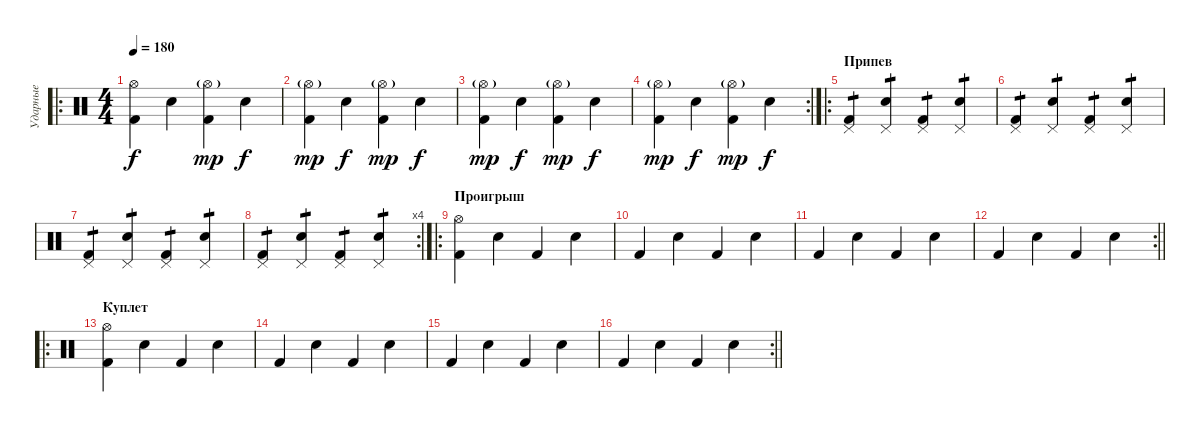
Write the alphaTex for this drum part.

\track ("Ударные" "Ударные") {instrument percussion}
\staff {score}
\articulation defaults
\ro
\ts (4 4)
\tempo 180
\clef neutral
\ks c
("Hi-Hat (open)" "Kick (hit) 2").4{dy f} "Snare (hit) 2".4 ("Hi-Hat (open)"{g} "Kick (hit) 2").4{dy mp} "Snare (hit) 2".4{dy f} |
("Hi-Hat (open)"{g} "Kick (hit) 2").4{dy mp} "Snare (hit) 2".4{dy f} ("Hi-Hat (open)"{g} "Kick (hit) 2").4{dy mp} "Snare (hit) 2".4{dy f} |
("Hi-Hat (open)"{g} "Kick (hit) 2").4{dy mp} "Snare (hit) 2".4{dy f} ("Hi-Hat (open)"{g} "Kick (hit) 2").4{dy mp} "Snare (hit) 2".4{dy f} |
\rc 2
("Hi-Hat (open)"{g} "Kick (hit) 2").4{dy mp} "Snare (hit) 2".4{dy f} ("Hi-Hat (open)"{g} "Kick (hit) 2").4{dy mp} "Snare (hit) 2".4{dy f} |
\ro
\section ("" "Припев")
("Pedal Hi-Hat (hit)" "Kick (hit) 2").4{tp 1} ("Snare (hit) 2" "Pedal Hi-Hat (hit)").4{tp 1} ("Pedal Hi-Hat (hit)" "Kick (hit) 2").4{tp 1} ("Snare (hit) 2" "Pedal Hi-Hat (hit)").4{tp 1} |
("Pedal Hi-Hat (hit)" "Kick (hit) 2").4{tp 1} ("Snare (hit) 2" "Pedal Hi-Hat (hit)").4{tp 1} ("Pedal Hi-Hat (hit)" "Kick (hit) 2").4{tp 1} ("Snare (hit) 2" "Pedal Hi-Hat (hit)").4{tp 1} |
("Pedal Hi-Hat (hit)" "Kick (hit) 2").4{tp 1} ("Snare (hit) 2" "Pedal Hi-Hat (hit)").4{tp 1} ("Pedal Hi-Hat (hit)" "Kick (hit) 2").4{tp 1} ("Snare (hit) 2" "Pedal Hi-Hat (hit)").4{tp 1} |
\rc 4
("Pedal Hi-Hat (hit)" "Kick (hit) 2").4{tp 1} ("Snare (hit) 2" "Pedal Hi-Hat (hit)").4{tp 1} ("Pedal Hi-Hat (hit)" "Kick (hit) 2").4{tp 1} ("Snare (hit) 2" "Pedal Hi-Hat (hit)").4{tp 1} |
\ro
\section ("" "Проигрыш")
("Hi-Hat (open)" "Kick (hit) 2").4 "Snare (hit) 2".4 "Kick (hit) 2".4 "Snare (hit) 2".4 |
"Kick (hit) 2".4 "Snare (hit) 2".4 "Kick (hit) 2".4 "Snare (hit) 2".4 |
"Kick (hit) 2".4 "Snare (hit) 2".4 "Kick (hit) 2".4 "Snare (hit) 2".4 |
\rc 2
\barLineRight lightlight "Kick (hit) 2".4 "Snare (hit) 2".4 "Kick (hit) 2".4 "Snare (hit) 2".4
|
\ro
\section ("" "Куплет")
("Hi-Hat (open)" "Kick (hit) 2").4 "Snare (hit) 2".4 "Kick (hit) 2".4 "Snare (hit) 2".4 |
"Kick (hit) 2".4 "Snare (hit) 2".4 "Kick (hit) 2".4 "Snare (hit) 2".4 |
"Kick (hit) 2".4 "Snare (hit) 2".4 "Kick (hit) 2".4 "Snare (hit) 2".4 |
\rc 2
\barLineRight lightlight "Kick (hit) 2".4 "Snare (hit) 2".4 "Kick (hit) 2".4 "Snare (hit) 2".4
